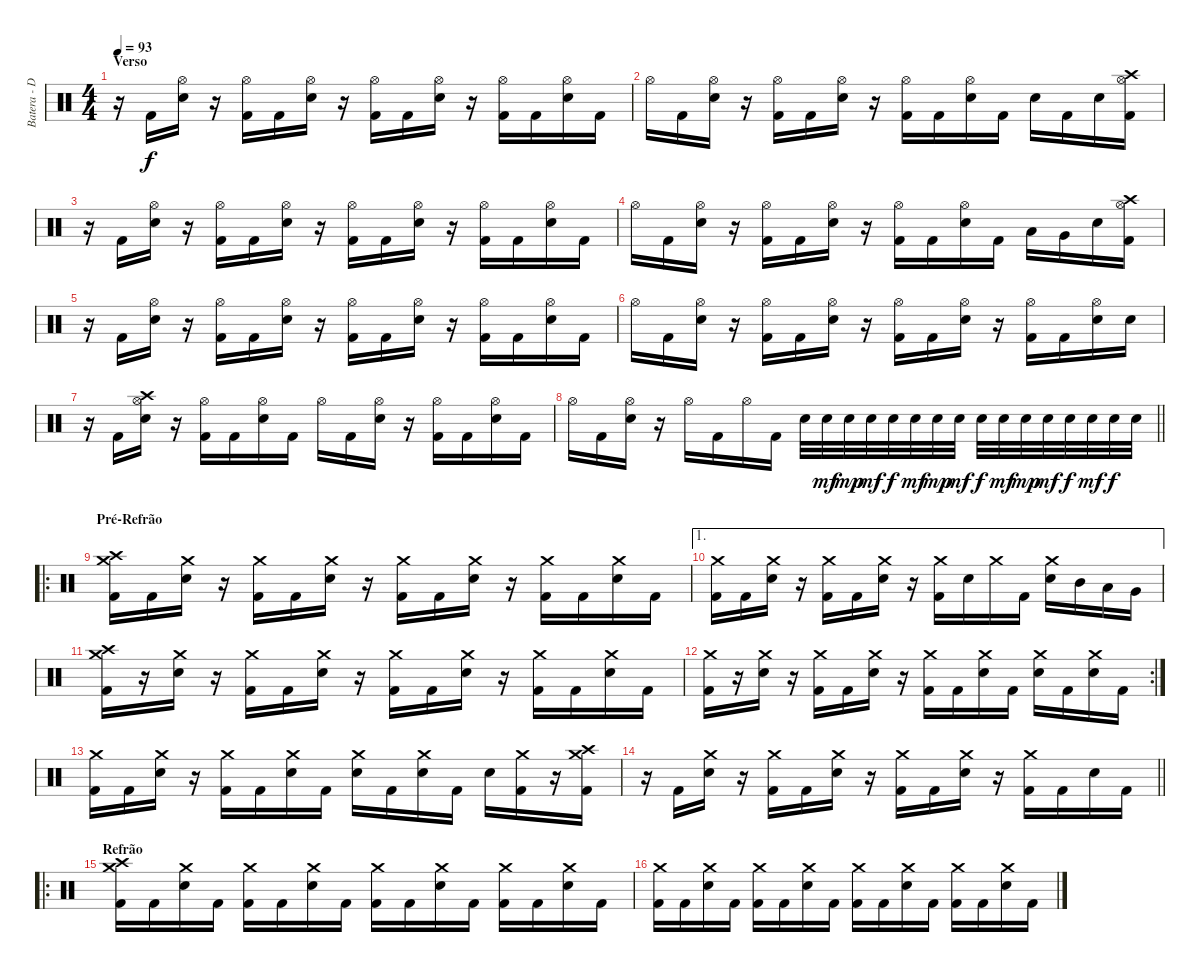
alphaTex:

\track ("Batera - Daniel" "Batera - D") {instrument percussion}
\staff {score}
\articulation defaults
\ts (4 4)
\section ("" "Verso")
\tempo 93
\clef neutral
\ks c
r.16{dy f} "Kick (hit) 2".16 ("Hi-Hat (open)" "Electric Snare (hit)").16 r.16 ("Hi-Hat (open)" "Kick (hit) 2").16 "Kick (hit) 2".16 ("Hi-Hat (open)" "Electric Snare (hit)").16 r.16 ("Hi-Hat (open)" "Kick (hit) 2").16 "Kick (hit) 2".16 ("Hi-Hat (open)" "Electric Snare (hit)").16 r.16 ("Hi-Hat (open)" "Kick (hit) 2").16 "Kick (hit) 2".16 ("Hi-Hat (open)" "Electric Snare (hit)").16 "Kick (hit) 2".16 |
"Hi-Hat (open)".16 "Kick (hit) 2".16 ("Hi-Hat (open)" "Electric Snare (hit)").16 r.16 ("Hi-Hat (open)" "Kick (hit) 2").16 "Kick (hit) 2".16 ("Hi-Hat (open)" "Electric Snare (hit)").16 r.16 ("Hi-Hat (open)" "Kick (hit) 2").16 "Kick (hit) 2".16 ("Hi-Hat (open)" "Electric Snare (hit)").16 "Kick (hit) 2".16 "Electric Snare (hit)".16 "Kick (hit) 2".16 "Electric Snare (hit)".16 ("Crash high (hit)" "Hi-Hat (open)" "Kick (hit) 2").16 |
r.16 "Kick (hit) 2".16 ("Hi-Hat (open)" "Electric Snare (hit)").16 r.16 ("Hi-Hat (open)" "Kick (hit) 2").16 "Kick (hit) 2".16 ("Hi-Hat (open)" "Electric Snare (hit)").16 r.16 ("Hi-Hat (open)" "Kick (hit) 2").16 "Kick (hit) 2".16 ("Hi-Hat (open)" "Electric Snare (hit)").16 r.16 ("Hi-Hat (open)" "Kick (hit) 2").16 "Kick (hit) 2".16 ("Hi-Hat (open)" "Electric Snare (hit)").16 "Kick (hit) 2".16 |
"Hi-Hat (open)".16 "Kick (hit) 2".16 ("Hi-Hat (open)" "Electric Snare (hit)").16 r.16 ("Hi-Hat (open)" "Kick (hit) 2").16 "Kick (hit) 2".16 ("Hi-Hat (open)" "Electric Snare (hit)").16 r.16 ("Hi-Hat (open)" "Kick (hit) 2").16 "Kick (hit) 2".16 ("Hi-Hat (open)" "Electric Snare (hit)").16 "Kick (hit) 2".16 "Low Tom (hit)".16 "Very Low Tom (hit)".16 "Electric Snare (hit)".16 ("Crash high (hit)" "Hi-Hat (open)" "Kick (hit) 2").16 |
r.16 "Kick (hit) 2".16 ("Hi-Hat (open)" "Electric Snare (hit)").16 r.16 ("Hi-Hat (open)" "Kick (hit) 2").16 "Kick (hit) 2".16 ("Hi-Hat (open)" "Electric Snare (hit)").16 r.16 ("Hi-Hat (open)" "Kick (hit) 2").16 "Kick (hit) 2".16 ("Hi-Hat (open)" "Electric Snare (hit)").16 r.16 ("Hi-Hat (open)" "Kick (hit) 2").16 "Kick (hit) 2".16 ("Hi-Hat (open)" "Electric Snare (hit)").16 "Kick (hit) 2".16 |
"Hi-Hat (open)".16 "Kick (hit) 2".16 ("Hi-Hat (open)" "Electric Snare (hit)").16 r.16 ("Hi-Hat (open)" "Kick (hit) 2").16 "Kick (hit) 2".16 ("Hi-Hat (open)" "Electric Snare (hit)").16 r.16 ("Hi-Hat (open)" "Kick (hit) 2").16 "Kick (hit) 2".16 ("Hi-Hat (open)" "Electric Snare (hit)").16 r.16 ("Hi-Hat (open)" "Kick (hit) 2").16 "Kick (hit) 2".16 ("Hi-Hat (open)" "Electric Snare (hit)").16 "Electric Snare (hit)".16 |
r.16 "Kick (hit) 2".16 ("Crash high (hit)" "Hi-Hat (open)" "Electric Snare (hit)").16 r.16 ("Hi-Hat (open)" "Kick (hit) 2").16 "Kick (hit) 2".16 ("Hi-Hat (open)" "Electric Snare (hit)").16 "Kick (hit) 2".16 "Hi-Hat (open)".16 "Kick (hit) 2".16 ("Hi-Hat (open)" "Electric Snare (hit)").16 r.16 ("Hi-Hat (open)" "Kick (hit) 2").16 "Kick (hit) 2".16 ("Hi-Hat (open)" "Electric Snare (hit)").16 "Kick (hit) 2".16 |
\barLineRight lightlight "Hi-Hat (open)".16 "Kick (hit) 2".16
("Hi-Hat (open)" "Electric Snare (hit)").16 r.16 "Hi-Hat (open)".16 "Kick (hit) 2".16 "Hi-Hat (open)".16 "Kick (hit) 2".16 "Electric Snare (hit)".32 "Electric Snare (hit)".32{dy mf} "Electric Snare (hit)".32{dy mp} "Electric Snare (hit)".32{dy mf} "Electric Snare (hit)".32{dy f} "Electric Snare (hit)".32{dy mf} "Electric Snare (hit)".32{dy mp} "Electric Snare (hit)".32{dy mf} "Electric Snare (hit)".32{dy f} "Electric Snare (hit)".32{dy mf} "Electric Snare (hit)".32{dy mp} "Electric Snare (hit)".32{dy mf} "Electric Snare (hit)".32{dy f} "Electric Snare (hit)".32{dy mf} "Electric Snare (hit)".32{dy f} "Electric Snare (hit)".32 |
\ro
\section ("" "Pré-Refrão")
("Crash high (hit)" "Crash medium (hit)" "Kick (hit) 2").16 "Kick (hit) 2".16 ("Crash medium (hit)" "Electric Snare (hit)").16 r.16 ("Crash medium (hit)" "Kick (hit) 2").16 "Kick (hit) 2".16 ("Crash medium (hit)" "Electric Snare (hit)").16 r.16 ("Crash medium (hit)" "Kick (hit) 2").16 "Kick (hit) 2".16 ("Crash medium (hit)" "Electric Snare (hit)").16 r.16 ("Crash medium (hit)" "Kick (hit) 2").16 "Kick (hit) 2".16 ("Crash medium (hit)" "Electric Snare (hit)").16 "Kick (hit) 2".16 |
\ae 1
("Crash medium (hit)" "Kick (hit) 2").16 "Kick (hit) 2".16 ("Crash medium (hit)" "Electric Snare (hit)").16 r.16 ("Crash medium (hit)" "Kick (hit) 2").16 "Kick (hit) 2".16 ("Crash medium (hit)" "Electric Snare (hit)").16 r.16 ("Crash medium (hit)" "Kick (hit) 2").16 "Electric Snare (hit)".16 "Crash medium (hit)".16 "Kick (hit) 2".16 ("Crash medium (hit)" "Electric Snare (hit)").16 "Mid Tom (hit)".16 "Low Tom (hit)".16 "Very Low Tom (hit)".16 |
("Crash high (hit)" "Crash medium (hit)" "Kick (hit) 2").16 r.16 ("Crash medium (hit)" "Electric Snare (hit)").16 r.16 ("Crash medium (hit)" "Kick (hit) 2").16 "Kick (hit) 2".16 ("Crash medium (hit)" "Electric Snare (hit)").16 r.16 ("Crash medium (hit)" "Kick (hit) 2").16 "Kick (hit) 2".16 ("Crash medium (hit)" "Electric Snare (hit)").16 r.16 ("Crash medium (hit)" "Kick (hit) 2").16 "Kick (hit) 2".16 ("Crash medium (hit)" "Electric Snare (hit)").16 "Kick (hit) 2".16 |
\rc 2
("Crash medium (hit)" "Kick (hit) 2").16 r.16 ("Crash medium (hit)" "Electric Snare (hit)").16 r.16 ("Crash medium (hit)" "Kick (hit) 2").16 "Kick (hit) 2".16 ("Crash medium (hit)" "Electric Snare (hit)").16 r.16 ("Crash medium (hit)" "Kick (hit) 2").16 "Kick (hit) 2".16 ("Crash medium (hit)" "Electric Snare (hit)").16 "Kick (hit) 2".16 ("Crash medium (hit)" "Electric Snare (hit)").16 "Kick (hit) 2".16 ("Crash medium (hit)" "Electric Snare (hit)").16 "Kick (hit) 2".16 |
("Crash medium (hit)" "Kick (hit) 2").16 "Kick (hit) 2".16 ("Crash medium (hit)" "Electric Snare (hit)").16 r.16 ("Crash medium (hit)" "Kick (hit) 2").16 "Kick (hit) 2".16 ("Crash medium (hit)" "Electric Snare (hit)").16 "Kick (hit) 2".16 ("Crash medium (hit)" "Electric Snare (hit)").16 "Kick (hit) 2".16 ("Crash medium (hit)" "Electric Snare (hit)").16 "Kick (hit) 2".16 "Electric Snare (hit)".16 ("Crash medium (hit)" "Kick (hit) 2").16 r.16 ("Crash high (hit)" "Crash medium (hit)" "Kick (hit) 2").16 |
\barLineRight lightlight
r.16 "Kick (hit) 2".16 ("Crash medium (hit)" "Electric Snare (hit)").16 r.16 ("Crash medium (hit)" "Kick (hit) 2").16 "Kick (hit) 2".16 ("Crash medium (hit)" "Electric Snare (hit)").16 r.16 ("Crash medium (hit)" "Kick (hit) 2").16 "Kick (hit) 2".16 ("Crash medium (hit)" "Electric Snare (hit)").16 r.16 ("Crash medium (hit)" "Kick (hit) 2").16 "Kick (hit) 2".16 "Electric Snare (hit)".16 "Kick (hit) 2".16 |
\ro
\section ("" "Refrão")
("Crash high (hit)" "Crash medium (hit)" "Kick (hit) 2").16 "Kick (hit) 2".16 ("Crash medium (hit)" "Electric Snare (hit)").16 "Kick (hit) 2".16 ("Crash medium (hit)" "Kick (hit) 2").16 "Kick (hit) 2".16 ("Crash medium (hit)" "Electric Snare (hit)").16 "Kick (hit) 2".16 ("Crash medium (hit)" "Kick (hit) 2").16 "Kick (hit) 2".16 ("Crash medium (hit)" "Electric Snare (hit)").16 "Kick (hit) 2".16 ("Crash medium (hit)" "Kick (hit) 2").16 "Kick (hit) 2".16 ("Crash medium (hit)" "Electric Snare (hit)").16 "Kick (hit) 2".16 |
("Crash medium (hit)" "Kick (hit) 2").16 "Kick (hit) 2".16 ("Crash medium (hit)" "Electric Snare (hit)").16 "Kick (hit) 2".16 ("Crash medium (hit)" "Kick (hit) 2").16 "Kick (hit) 2".16 ("Crash medium (hit)" "Electric Snare (hit)").16 "Kick (hit) 2".16 ("Crash medium (hit)" "Kick (hit) 2").16 "Kick (hit) 2".16 ("Crash medium (hit)" "Electric Snare (hit)").16 "Kick (hit) 2".16 ("Crash medium (hit)" "Kick (hit) 2").16 "Kick (hit) 2".16 ("Crash medium (hit)" "Electric Snare (hit)").16 "Kick (hit) 2".16
